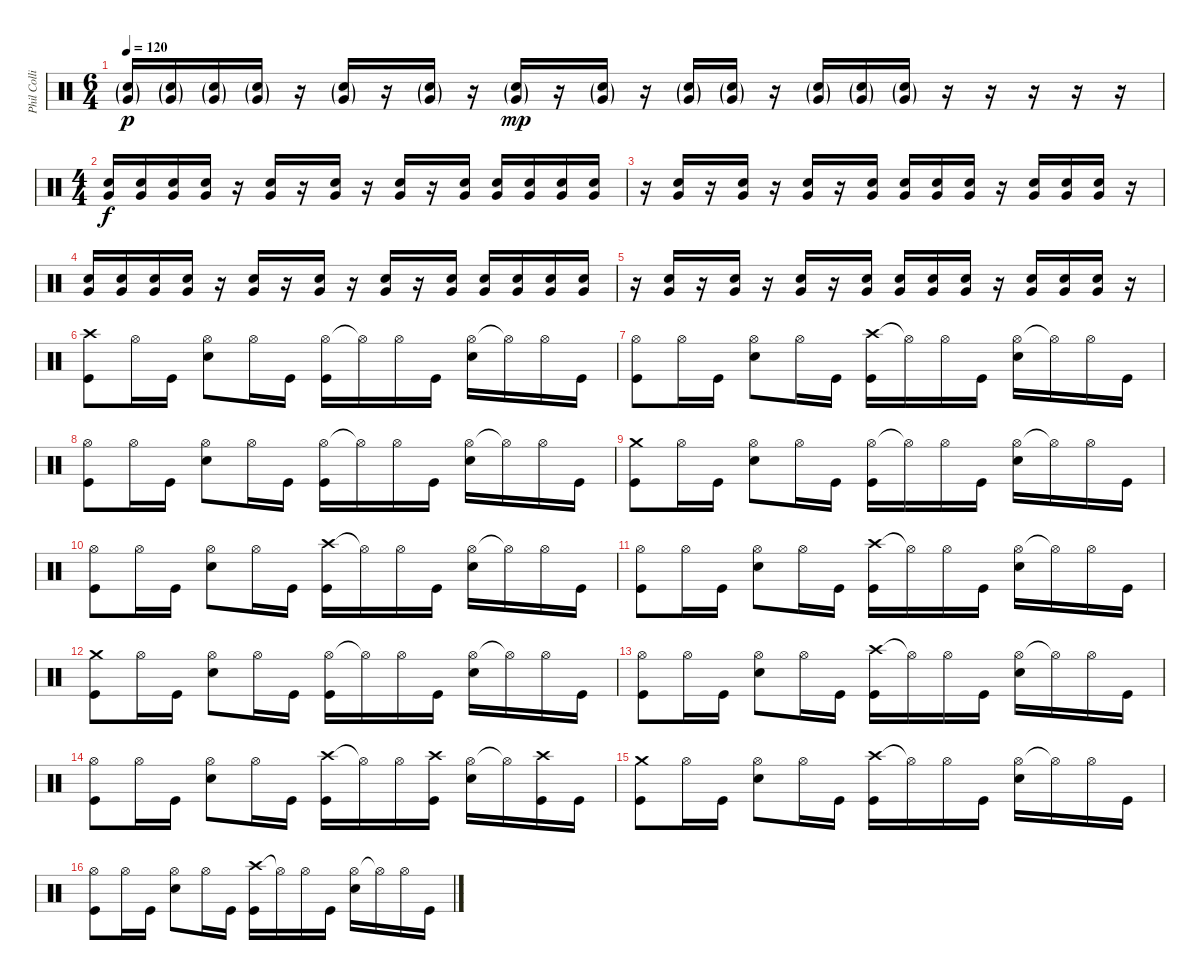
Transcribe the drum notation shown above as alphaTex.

\track ("Phil Collins" "Phil Colli") {instrument percussion}
\staff
\articulation defaults
\ts (6 4)
\tempo 120
\clef neutral
\ks c
("Electric Snare (hit)"{g} "Very Low Tom (hit)"{g}).16{dy p} ("Electric Snare (hit)"{g} "Very Low Tom (hit)"{g}).16 ("Electric Snare (hit)"{g} "Very Low Tom (hit)"{g}).16 ("Electric Snare (hit)"{g} "Very Low Tom (hit)"{g}).16 r.16 ("Electric Snare (hit)"{g} "Very Low Tom (hit)"{g}).16 r.16 ("Electric Snare (hit)"{g} "Very Low Tom (hit)"{g}).16 r.16 ("Electric Snare (hit)"{g} "Very Low Tom (hit)"{g}).16{dy mp} r.16 ("Electric Snare (hit)"{g} "Very Low Tom (hit)"{g}).16 r.16 ("Electric Snare (hit)"{g} "Very Low Tom (hit)"{g}).16 ("Electric Snare (hit)"{g} "Very Low Tom (hit)"{g}).16 r.16 ("Electric Snare (hit)"{g} "Very Low Tom (hit)"{g}).16 ("Electric Snare (hit)"{g} "Very Low Tom (hit)"{g}).16 ("Electric Snare (hit)"{g} "Very Low Tom (hit)"{g}).16 r.16 r.16 r.16 r.16 r.16 |
\ts (4 4)
("Electric Snare (hit)" "Very Low Tom (hit)").16{dy f} ("Electric Snare (hit)" "Very Low Tom (hit)").16 ("Electric Snare (hit)" "Very Low Tom (hit)").16 ("Electric Snare (hit)" "Very Low Tom (hit)").16 r.16 ("Electric Snare (hit)" "Very Low Tom (hit)").16 r.16 ("Electric Snare (hit)" "Very Low Tom (hit)").16 r.16 ("Electric Snare (hit)" "Very Low Tom (hit)").16 r.16 ("Electric Snare (hit)" "Very Low Tom (hit)").16 ("Electric Snare (hit)" "Very Low Tom (hit)").16 ("Electric Snare (hit)" "Very Low Tom (hit)").16 ("Electric Snare (hit)" "Very Low Tom (hit)").16 ("Electric Snare (hit)" "Very Low Tom (hit)").16 |
r.16 ("Electric Snare (hit)" "Very Low Tom (hit)").16 r.16 ("Electric Snare (hit)" "Very Low Tom (hit)").16 r.16 ("Electric Snare (hit)" "Very Low Tom (hit)").16 r.16 ("Electric Snare (hit)" "Very Low Tom (hit)").16 ("Electric Snare (hit)" "Very Low Tom (hit)").16 ("Electric Snare (hit)" "Very Low Tom (hit)").16 ("Electric Snare (hit)" "Very Low Tom (hit)").16 r.16 ("Electric Snare (hit)" "Very Low Tom (hit)").16 ("Electric Snare (hit)" "Very Low Tom (hit)").16 ("Electric Snare (hit)" "Very Low Tom (hit)").16 r.16 |
("Electric Snare (hit)" "Very Low Tom (hit)").16 ("Electric Snare (hit)" "Very Low Tom (hit)").16 ("Electric Snare (hit)" "Very Low Tom (hit)").16 ("Electric Snare (hit)" "Very Low Tom (hit)").16 r.16 ("Electric Snare (hit)" "Very Low Tom (hit)").16 r.16 ("Electric Snare (hit)" "Very Low Tom (hit)").16 r.16 ("Electric Snare (hit)" "Very Low Tom (hit)").16 r.16 ("Electric Snare (hit)" "Very Low Tom (hit)").16 ("Electric Snare (hit)" "Very Low Tom (hit)").16 ("Electric Snare (hit)" "Very Low Tom (hit)").16 ("Electric Snare (hit)" "Very Low Tom (hit)").16 ("Electric Snare (hit)" "Very Low Tom (hit)").16 |
r.16 ("Electric Snare (hit)" "Very Low Tom (hit)").16 r.16 ("Electric Snare (hit)" "Very Low Tom (hit)").16 r.16 ("Electric Snare (hit)" "Very Low Tom (hit)").16 r.16 ("Electric Snare (hit)" "Very Low Tom (hit)").16 ("Electric Snare (hit)" "Very Low Tom (hit)").16 ("Electric Snare (hit)" "Very Low Tom (hit)").16 ("Electric Snare (hit)" "Very Low Tom (hit)").16 r.16 ("Electric Snare (hit)" "Very Low Tom (hit)").16 ("Electric Snare (hit)" "Very Low Tom (hit)").16 ("Electric Snare (hit)" "Very Low Tom (hit)").16 r.16 |
("Crash high (hit)" "Kick (hit)").8 "Hi-Hat (open)".16 "Kick (hit)".16 ("Hi-Hat (open)" "Electric Snare (hit)").8 "Hi-Hat (open)".16 "Kick (hit)".16 ("Hi-Hat (open)" "Kick (hit)").16 "Hi-Hat (open)"{t}.16 "Hi-Hat (open)".16 "Kick (hit)".16 ("Hi-Hat (open)" "Electric Snare (hit)").16 "Hi-Hat (open)"{t}.16 "Hi-Hat (open)".16 "Kick (hit)".16 |
("Hi-Hat (open)" "Kick (hit)").8 "Hi-Hat (open)".16 "Kick (hit)".16 ("Hi-Hat (open)" "Electric Snare (hit)").8 "Hi-Hat (open)".16 "Kick (hit)".16 ("Crash high (hit)" "Kick (hit)").16 "Hi-Hat (open)"{t}.16 "Hi-Hat (open)".16 "Kick (hit)".16 ("Hi-Hat (open)" "Electric Snare (hit)").16 "Hi-Hat (open)"{t}.16 "Hi-Hat (open)".16 "Kick (hit)".16 |
("Hi-Hat (open)" "Kick (hit)").8 "Hi-Hat (open)".16 "Kick (hit)".16 ("Hi-Hat (open)" "Electric Snare (hit)").8 "Hi-Hat (open)".16 "Kick (hit)".16 ("Hi-Hat (open)" "Kick (hit)").16 "Hi-Hat (open)"{t}.16 "Hi-Hat (open)".16 "Kick (hit)".16 ("Hi-Hat (open)" "Electric Snare (hit)").16 "Hi-Hat (open)"{t}.16 "Hi-Hat (open)".16 "Kick (hit)".16 |
("Crash medium (hit)" "Kick (hit)").8 "Hi-Hat (open)".16 "Kick (hit)".16 ("Hi-Hat (open)" "Electric Snare (hit)").8 "Hi-Hat (open)".16 "Kick (hit)".16 ("Hi-Hat (open)" "Kick (hit)").16 "Hi-Hat (open)"{t}.16 "Hi-Hat (open)".16 "Kick (hit)".16 ("Hi-Hat (open)" "Electric Snare (hit)").16 "Hi-Hat (open)"{t}.16 "Hi-Hat (open)".16 "Kick (hit)".16 |
("Hi-Hat (open)" "Kick (hit)").8 "Hi-Hat (open)".16 "Kick (hit)".16 ("Hi-Hat (open)" "Electric Snare (hit)").8 "Hi-Hat (open)".16 "Kick (hit)".16 ("Crash high (hit)" "Kick (hit)").16 "Hi-Hat (open)"{t}.16 "Hi-Hat (open)".16 "Kick (hit)".16 ("Hi-Hat (open)" "Electric Snare (hit)").16 "Hi-Hat (open)"{t}.16 "Hi-Hat (open)".16 "Kick (hit)".16 |
("Hi-Hat (open)" "Kick (hit)").8 "Hi-Hat (open)".16 "Kick (hit)".16 ("Hi-Hat (open)" "Electric Snare (hit)").8 "Hi-Hat (open)".16 "Kick (hit)".16 ("Crash high (hit)" "Kick (hit)").16 "Hi-Hat (open)"{t}.16 "Hi-Hat (open)".16 "Kick (hit)".16 ("Hi-Hat (open)" "Electric Snare (hit)").16 "Hi-Hat (open)"{t}.16 "Hi-Hat (open)".16 "Kick (hit)".16 |
("Crash medium (hit)" "Kick (hit)").8 "Hi-Hat (open)".16 "Kick (hit)".16 ("Hi-Hat (open)" "Electric Snare (hit)").8 "Hi-Hat (open)".16 "Kick (hit)".16 ("Hi-Hat (open)" "Kick (hit)").16 "Hi-Hat (open)"{t}.16 "Hi-Hat (open)".16 "Kick (hit)".16 ("Hi-Hat (open)" "Electric Snare (hit)").16 "Hi-Hat (open)"{t}.16 "Hi-Hat (open)".16 "Kick (hit)".16 |
("Hi-Hat (open)" "Kick (hit)").8 "Hi-Hat (open)".16 "Kick (hit)".16 ("Hi-Hat (open)" "Electric Snare (hit)").8 "Hi-Hat (open)".16 "Kick (hit)".16 ("Crash high (hit)" "Kick (hit)").16 "Hi-Hat (open)"{t}.16 "Hi-Hat (open)".16 "Kick (hit)".16 ("Hi-Hat (open)" "Electric Snare (hit)").16 "Hi-Hat (open)"{t}.16 "Hi-Hat (open)".16 "Kick (hit)".16 |
("Hi-Hat (open)" "Kick (hit)").8 "Hi-Hat (open)".16 "Kick (hit)".16 ("Hi-Hat (open)" "Electric Snare (hit)").8 "Hi-Hat (open)".16 "Kick (hit)".16 ("Crash high (hit)" "Kick (hit)").16 "Hi-Hat (open)"{t}.16 "Hi-Hat (open)".16 ("Kick (hit)" "Crash high (hit)").16 ("Hi-Hat (open)" "Electric Snare (hit)").16 "Hi-Hat (open)"{t}.16 ("Crash high (hit)" "Kick (hit)").16 "Kick (hit)".16 |
("Crash medium (hit)" "Kick (hit)").8 "Hi-Hat (open)".16 "Kick (hit)".16 ("Hi-Hat (open)" "Electric Snare (hit)").8 "Hi-Hat (open)".16 "Kick (hit)".16 ("Crash high (hit)" "Kick (hit)").16 "Hi-Hat (open)"{t}.16 "Hi-Hat (open)".16 "Kick (hit)".16 ("Hi-Hat (open)" "Electric Snare (hit)").16 "Hi-Hat (open)"{t}.16 "Hi-Hat (open)".16 "Kick (hit)".16 |
("Hi-Hat (open)" "Kick (hit)").8 "Hi-Hat (open)".16 "Kick (hit)".16 ("Hi-Hat (open)" "Electric Snare (hit)").8 "Hi-Hat (open)".16 "Kick (hit)".16 ("Crash high (hit)" "Kick (hit)").16 "Hi-Hat (open)"{t}.16 "Hi-Hat (open)".16 "Kick (hit)".16 ("Hi-Hat (open)" "Electric Snare (hit)").16 "Hi-Hat (open)"{t}.16 "Hi-Hat (open)".16 "Kick (hit)".16
